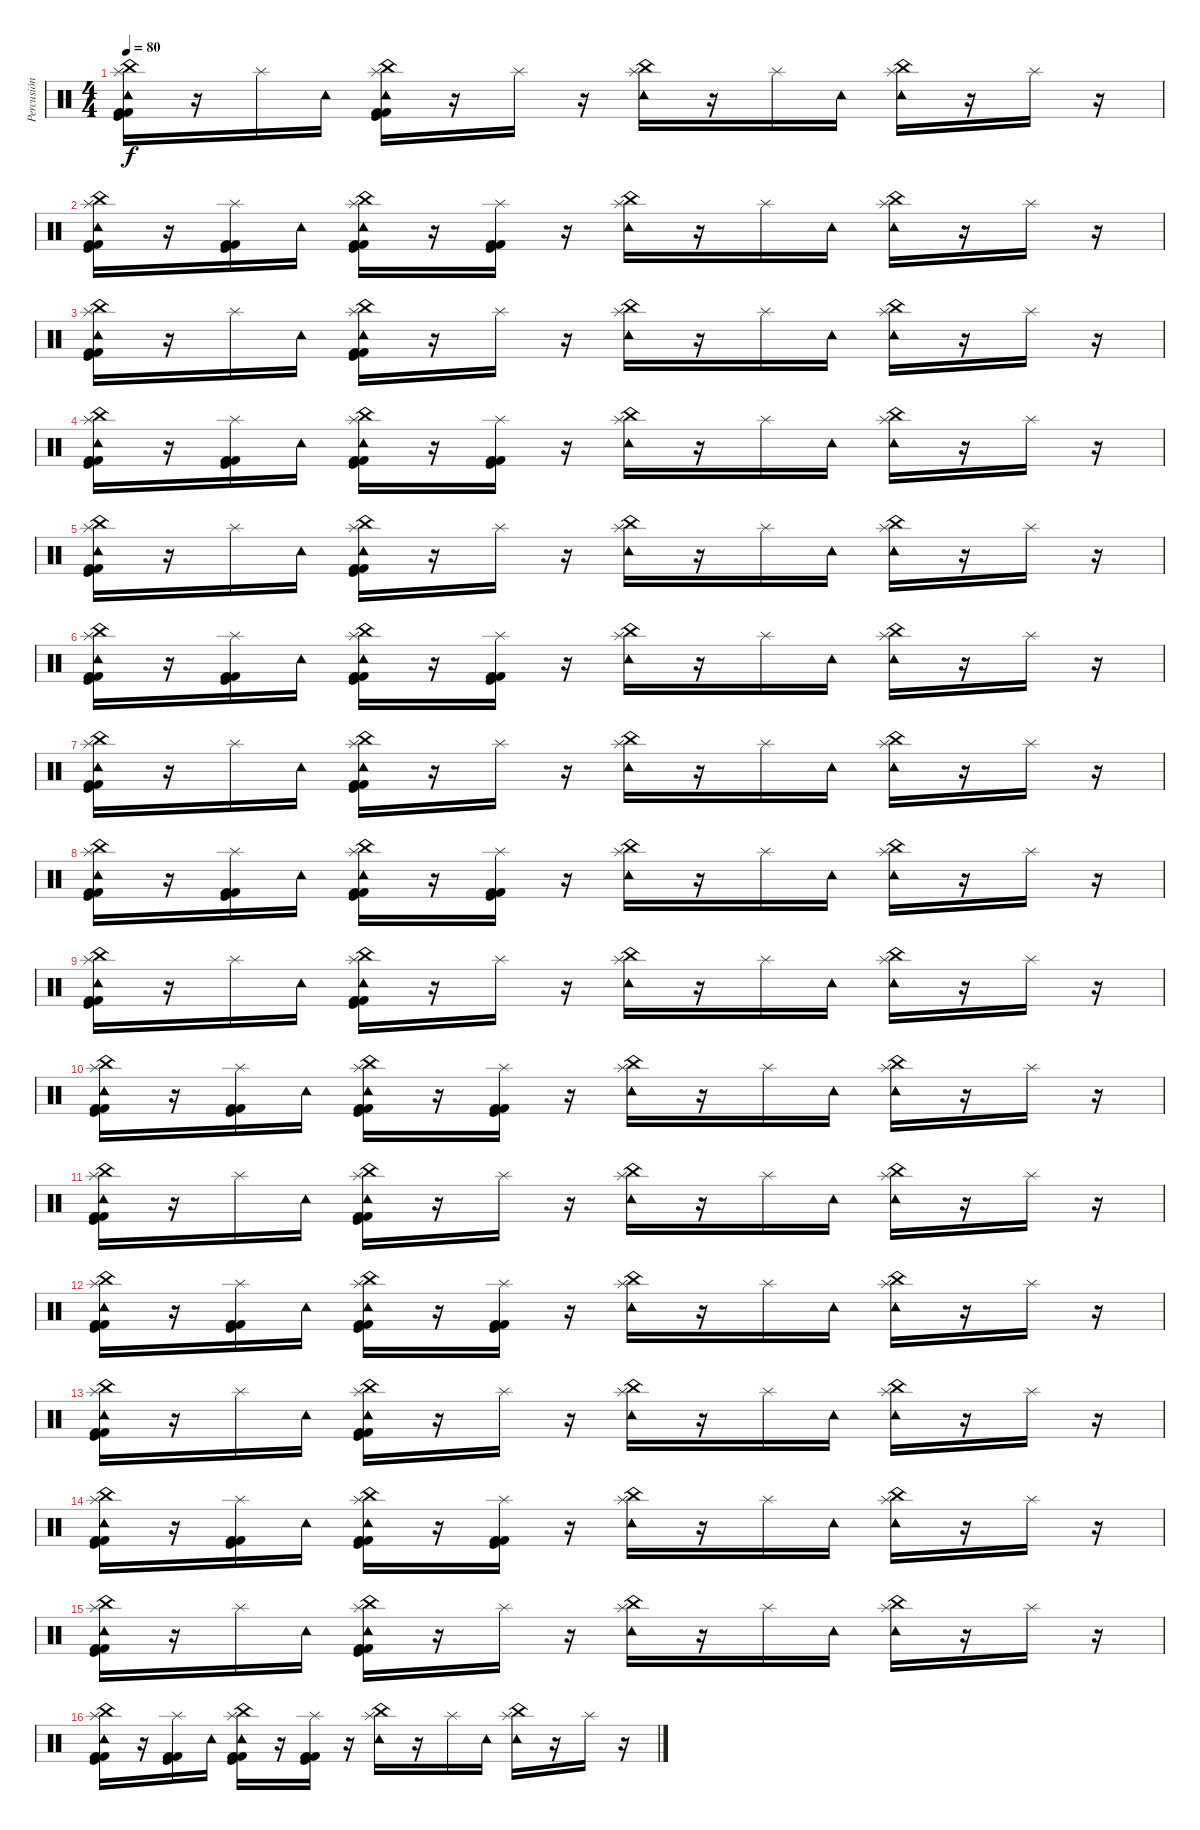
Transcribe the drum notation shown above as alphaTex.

\track ("Percusión" "Percusión") {instrument percussion}
\staff {score}
\articulation defaults
\ts (4 4)
\tempo 80
\clef neutral
\ks c
("Splash (hit)" "Tambourine (hit)" "China (hit)" "Kick (hit)" "Kick (hit) 2" "Kick (hit) 2").16{dy f} r.16 "Splash (hit)".16 "Tambourine (hit)".16 ("Splash (hit)" "Tambourine (hit)" "China (hit)" "Kick (hit)" "Kick (hit) 2" "Kick (hit) 2").16 r.16 "Splash (hit)".16 r.16 ("Splash (hit)" "Tambourine (hit)" "China (hit)").16 r.16 "Splash (hit)".16 "Tambourine (hit)".16 ("Splash (hit)" "Tambourine (hit)" "China (hit)").16 r.16 "Splash (hit)".16 r.16 |
("Splash (hit)" "Tambourine (hit)" "China (hit)" "Kick (hit)" "Kick (hit) 2" "Kick (hit) 2").16 r.16 ("Splash (hit)" "Kick (hit)" "Kick (hit) 2" "Kick (hit) 2").16 "Tambourine (hit)".16 ("Splash (hit)" "Tambourine (hit)" "China (hit)" "Kick (hit)" "Kick (hit) 2" "Kick (hit) 2").16 r.16 ("Splash (hit)" "Kick (hit)" "Kick (hit) 2" "Kick (hit) 2").16 r.16 ("Splash (hit)" "Tambourine (hit)" "China (hit)").16 r.16 "Splash (hit)".16 "Tambourine (hit)".16 ("Splash (hit)" "Tambourine (hit)" "China (hit)").16 r.16 "Splash (hit)".16 r.16 |
("Splash (hit)" "Tambourine (hit)" "China (hit)" "Kick (hit)" "Kick (hit) 2" "Kick (hit) 2").16 r.16 "Splash (hit)".16 "Tambourine (hit)".16 ("Splash (hit)" "Tambourine (hit)" "China (hit)" "Kick (hit)" "Kick (hit) 2" "Kick (hit) 2").16 r.16 "Splash (hit)".16 r.16 ("Splash (hit)" "Tambourine (hit)" "China (hit)").16 r.16 "Splash (hit)".16 "Tambourine (hit)".16 ("Splash (hit)" "Tambourine (hit)" "China (hit)").16 r.16 "Splash (hit)".16 r.16 |
("Splash (hit)" "Tambourine (hit)" "China (hit)" "Kick (hit)" "Kick (hit) 2" "Kick (hit) 2").16 r.16 ("Splash (hit)" "Kick (hit)" "Kick (hit) 2" "Kick (hit) 2").16 "Tambourine (hit)".16 ("Splash (hit)" "Tambourine (hit)" "China (hit)" "Kick (hit)" "Kick (hit) 2" "Kick (hit) 2").16 r.16 ("Splash (hit)" "Kick (hit)" "Kick (hit) 2" "Kick (hit) 2").16 r.16 ("Splash (hit)" "Tambourine (hit)" "China (hit)").16 r.16 "Splash (hit)".16 "Tambourine (hit)".16 ("Splash (hit)" "Tambourine (hit)" "China (hit)").16 r.16 "Splash (hit)".16 r.16 |
("Splash (hit)" "Tambourine (hit)" "China (hit)" "Kick (hit)" "Kick (hit) 2" "Kick (hit) 2").16 r.16 "Splash (hit)".16 "Tambourine (hit)".16 ("Splash (hit)" "Tambourine (hit)" "China (hit)" "Kick (hit)" "Kick (hit) 2" "Kick (hit) 2").16 r.16 "Splash (hit)".16 r.16 ("Splash (hit)" "Tambourine (hit)" "China (hit)").16 r.16 "Splash (hit)".16 "Tambourine (hit)".16 ("Splash (hit)" "Tambourine (hit)" "China (hit)").16 r.16 "Splash (hit)".16 r.16 |
("Splash (hit)" "Tambourine (hit)" "China (hit)" "Kick (hit)" "Kick (hit) 2" "Kick (hit) 2").16 r.16 ("Splash (hit)" "Kick (hit)" "Kick (hit) 2" "Kick (hit) 2").16 "Tambourine (hit)".16 ("Splash (hit)" "Tambourine (hit)" "China (hit)" "Kick (hit)" "Kick (hit) 2" "Kick (hit) 2").16 r.16 ("Splash (hit)" "Kick (hit)" "Kick (hit) 2" "Kick (hit) 2").16 r.16 ("Splash (hit)" "Tambourine (hit)" "China (hit)").16 r.16 "Splash (hit)".16 "Tambourine (hit)".16 ("Splash (hit)" "Tambourine (hit)" "China (hit)").16 r.16 "Splash (hit)".16 r.16 |
("Splash (hit)" "Tambourine (hit)" "China (hit)" "Kick (hit)" "Kick (hit) 2" "Kick (hit) 2").16 r.16 "Splash (hit)".16 "Tambourine (hit)".16 ("Splash (hit)" "Tambourine (hit)" "China (hit)" "Kick (hit)" "Kick (hit) 2" "Kick (hit) 2").16 r.16 "Splash (hit)".16 r.16 ("Splash (hit)" "Tambourine (hit)" "China (hit)").16 r.16 "Splash (hit)".16 "Tambourine (hit)".16 ("Splash (hit)" "Tambourine (hit)" "China (hit)").16 r.16 "Splash (hit)".16 r.16 |
("Splash (hit)" "Tambourine (hit)" "China (hit)" "Kick (hit)" "Kick (hit) 2" "Kick (hit) 2").16 r.16 ("Splash (hit)" "Kick (hit)" "Kick (hit) 2" "Kick (hit) 2").16 "Tambourine (hit)".16 ("Splash (hit)" "Tambourine (hit)" "China (hit)" "Kick (hit)" "Kick (hit) 2" "Kick (hit) 2").16 r.16 ("Splash (hit)" "Kick (hit)" "Kick (hit) 2" "Kick (hit) 2").16 r.16 ("Splash (hit)" "Tambourine (hit)" "China (hit)").16 r.16 "Splash (hit)".16 "Tambourine (hit)".16 ("Splash (hit)" "Tambourine (hit)" "China (hit)").16 r.16 "Splash (hit)".16 r.16 |
("Splash (hit)" "Tambourine (hit)" "China (hit)" "Kick (hit)" "Kick (hit) 2" "Kick (hit) 2").16 r.16 "Splash (hit)".16 "Tambourine (hit)".16 ("Splash (hit)" "Tambourine (hit)" "China (hit)" "Kick (hit)" "Kick (hit) 2" "Kick (hit) 2").16 r.16 "Splash (hit)".16 r.16 ("Splash (hit)" "Tambourine (hit)" "China (hit)").16 r.16 "Splash (hit)".16 "Tambourine (hit)".16 ("Splash (hit)" "Tambourine (hit)" "China (hit)").16 r.16 "Splash (hit)".16 r.16 |
("Splash (hit)" "Tambourine (hit)" "China (hit)" "Kick (hit)" "Kick (hit) 2" "Kick (hit) 2").16 r.16 ("Splash (hit)" "Kick (hit)" "Kick (hit) 2" "Kick (hit) 2").16 "Tambourine (hit)".16 ("Splash (hit)" "Tambourine (hit)" "China (hit)" "Kick (hit)" "Kick (hit) 2" "Kick (hit) 2").16 r.16 ("Splash (hit)" "Kick (hit)" "Kick (hit) 2" "Kick (hit) 2").16 r.16 ("Splash (hit)" "Tambourine (hit)" "China (hit)").16 r.16 "Splash (hit)".16 "Tambourine (hit)".16 ("Splash (hit)" "Tambourine (hit)" "China (hit)").16 r.16 "Splash (hit)".16 r.16 |
("Splash (hit)" "Tambourine (hit)" "China (hit)" "Kick (hit)" "Kick (hit) 2" "Kick (hit) 2").16 r.16 "Splash (hit)".16 "Tambourine (hit)".16 ("Splash (hit)" "Tambourine (hit)" "China (hit)" "Kick (hit)" "Kick (hit) 2" "Kick (hit) 2").16 r.16 "Splash (hit)".16 r.16 ("Splash (hit)" "Tambourine (hit)" "China (hit)").16 r.16 "Splash (hit)".16 "Tambourine (hit)".16 ("Splash (hit)" "Tambourine (hit)" "China (hit)").16 r.16 "Splash (hit)".16 r.16 |
("Splash (hit)" "Tambourine (hit)" "China (hit)" "Kick (hit)" "Kick (hit) 2" "Kick (hit) 2").16 r.16 ("Splash (hit)" "Kick (hit)" "Kick (hit) 2" "Kick (hit) 2").16 "Tambourine (hit)".16 ("Splash (hit)" "Tambourine (hit)" "China (hit)" "Kick (hit)" "Kick (hit) 2" "Kick (hit) 2").16 r.16 ("Splash (hit)" "Kick (hit)" "Kick (hit) 2" "Kick (hit) 2").16 r.16 ("Splash (hit)" "Tambourine (hit)" "China (hit)").16 r.16 "Splash (hit)".16 "Tambourine (hit)".16 ("Splash (hit)" "Tambourine (hit)" "China (hit)").16 r.16 "Splash (hit)".16 r.16 |
("Splash (hit)" "Tambourine (hit)" "China (hit)" "Kick (hit)" "Kick (hit) 2" "Kick (hit) 2").16 r.16 "Splash (hit)".16 "Tambourine (hit)".16 ("Splash (hit)" "Tambourine (hit)" "China (hit)" "Kick (hit)" "Kick (hit) 2" "Kick (hit) 2").16 r.16 "Splash (hit)".16 r.16 ("Splash (hit)" "Tambourine (hit)" "China (hit)").16 r.16 "Splash (hit)".16 "Tambourine (hit)".16 ("Splash (hit)" "Tambourine (hit)" "China (hit)").16 r.16 "Splash (hit)".16 r.16 |
("Splash (hit)" "Tambourine (hit)" "China (hit)" "Kick (hit)" "Kick (hit) 2" "Kick (hit) 2").16 r.16 ("Splash (hit)" "Kick (hit)" "Kick (hit) 2" "Kick (hit) 2").16 "Tambourine (hit)".16 ("Splash (hit)" "Tambourine (hit)" "China (hit)" "Kick (hit)" "Kick (hit) 2" "Kick (hit) 2").16 r.16 ("Splash (hit)" "Kick (hit)" "Kick (hit) 2" "Kick (hit) 2").16 r.16 ("Splash (hit)" "Tambourine (hit)" "China (hit)").16 r.16 "Splash (hit)".16 "Tambourine (hit)".16 ("Splash (hit)" "Tambourine (hit)" "China (hit)").16 r.16 "Splash (hit)".16 r.16 |
("Splash (hit)" "Tambourine (hit)" "China (hit)" "Kick (hit)" "Kick (hit) 2" "Kick (hit) 2").16 r.16 "Splash (hit)".16 "Tambourine (hit)".16 ("Splash (hit)" "Tambourine (hit)" "China (hit)" "Kick (hit)" "Kick (hit) 2" "Kick (hit) 2").16 r.16 "Splash (hit)".16 r.16 ("Splash (hit)" "Tambourine (hit)" "China (hit)").16 r.16 "Splash (hit)".16 "Tambourine (hit)".16 ("Splash (hit)" "Tambourine (hit)" "China (hit)").16 r.16 "Splash (hit)".16 r.16 |
("Splash (hit)" "Tambourine (hit)" "China (hit)" "Kick (hit)" "Kick (hit) 2" "Kick (hit) 2").16 r.16 ("Splash (hit)" "Kick (hit)" "Kick (hit) 2" "Kick (hit) 2").16 "Tambourine (hit)".16 ("Splash (hit)" "Tambourine (hit)" "China (hit)" "Kick (hit)" "Kick (hit) 2" "Kick (hit) 2").16 r.16 ("Splash (hit)" "Kick (hit)" "Kick (hit) 2" "Kick (hit) 2").16 r.16 ("Splash (hit)" "Tambourine (hit)" "China (hit)").16 r.16 "Splash (hit)".16 "Tambourine (hit)".16 ("Splash (hit)" "Tambourine (hit)" "China (hit)").16 r.16 "Splash (hit)".16 r.16
